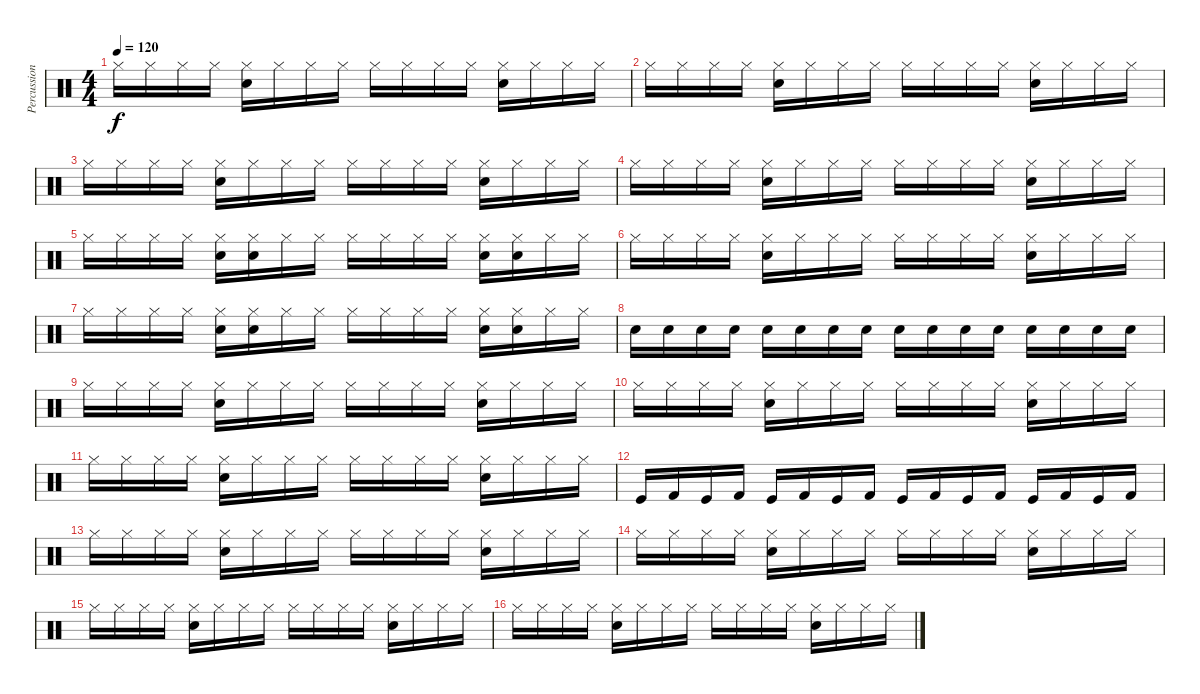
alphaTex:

\track ("Percussion" "Percussion") {instrument percussion}
\staff {score}
\articulation defaults
\ts (4 4)
\tempo 120
\clef neutral
\ks c "Hi-Hat (closed)".16{dy f} "Hi-Hat (closed)".16 "Hi-Hat (closed)".16 "Hi-Hat (closed)".16
("Hi-Hat (closed)" "Electric Snare (hit)").16 "Hi-Hat (closed)".16 "Hi-Hat (closed)".16 "Hi-Hat (closed)".16 "Hi-Hat (closed)".16 "Hi-Hat (closed)".16 "Hi-Hat (closed)".16 "Hi-Hat (closed)".16 ("Hi-Hat (closed)" "Electric Snare (hit)").16 "Hi-Hat (closed)".16 "Hi-Hat (closed)".16 "Hi-Hat (closed)".16 |
"Hi-Hat (closed)".16 "Hi-Hat (closed)".16 "Hi-Hat (closed)".16 "Hi-Hat (closed)".16 ("Hi-Hat (closed)" "Electric Snare (hit)").16 "Hi-Hat (closed)".16 "Hi-Hat (closed)".16 "Hi-Hat (closed)".16 "Hi-Hat (closed)".16 "Hi-Hat (closed)".16 "Hi-Hat (closed)".16 "Hi-Hat (closed)".16 ("Hi-Hat (closed)" "Electric Snare (hit)").16 "Hi-Hat (closed)".16 "Hi-Hat (closed)".16 "Hi-Hat (closed)".16 |
"Hi-Hat (closed)".16 "Hi-Hat (closed)".16 "Hi-Hat (closed)".16 "Hi-Hat (closed)".16 ("Hi-Hat (closed)" "Electric Snare (hit)").16 "Hi-Hat (closed)".16 "Hi-Hat (closed)".16 "Hi-Hat (closed)".16 "Hi-Hat (closed)".16 "Hi-Hat (closed)".16 "Hi-Hat (closed)".16 "Hi-Hat (closed)".16 ("Hi-Hat (closed)" "Electric Snare (hit)").16 "Hi-Hat (closed)".16 "Hi-Hat (closed)".16 "Hi-Hat (closed)".16 |
"Hi-Hat (closed)".16 "Hi-Hat (closed)".16 "Hi-Hat (closed)".16 "Hi-Hat (closed)".16 ("Hi-Hat (closed)" "Electric Snare (hit)").16 "Hi-Hat (closed)".16 "Hi-Hat (closed)".16 "Hi-Hat (closed)".16 "Hi-Hat (closed)".16 "Hi-Hat (closed)".16 "Hi-Hat (closed)".16 "Hi-Hat (closed)".16 ("Hi-Hat (closed)" "Electric Snare (hit)").16 "Hi-Hat (closed)".16 "Hi-Hat (closed)".16 "Hi-Hat (closed)".16 |
"Hi-Hat (closed)".16 "Hi-Hat (closed)".16 "Hi-Hat (closed)".16 "Hi-Hat (closed)".16 ("Hi-Hat (closed)" "Electric Snare (hit)").16 ("Hi-Hat (closed)" "Electric Snare (hit)").16 "Hi-Hat (closed)".16 "Hi-Hat (closed)".16 "Hi-Hat (closed)".16 "Hi-Hat (closed)".16 "Hi-Hat (closed)".16 "Hi-Hat (closed)".16 ("Hi-Hat (closed)" "Electric Snare (hit)").16 ("Hi-Hat (closed)" "Electric Snare (hit)").16 "Hi-Hat (closed)".16 "Hi-Hat (closed)".16 |
"Hi-Hat (closed)".16 "Hi-Hat (closed)".16 "Hi-Hat (closed)".16 "Hi-Hat (closed)".16 ("Hi-Hat (closed)" "Electric Snare (hit)").16 "Hi-Hat (closed)".16 "Hi-Hat (closed)".16 "Hi-Hat (closed)".16 "Hi-Hat (closed)".16 "Hi-Hat (closed)".16 "Hi-Hat (closed)".16 "Hi-Hat (closed)".16 ("Hi-Hat (closed)" "Electric Snare (hit)").16 "Hi-Hat (closed)".16 "Hi-Hat (closed)".16 "Hi-Hat (closed)".16 |
"Hi-Hat (closed)".16 "Hi-Hat (closed)".16 "Hi-Hat (closed)".16 "Hi-Hat (closed)".16 ("Hi-Hat (closed)" "Electric Snare (hit)").16 ("Hi-Hat (closed)" "Electric Snare (hit)").16 "Hi-Hat (closed)".16 "Hi-Hat (closed)".16 "Hi-Hat (closed)".16 "Hi-Hat (closed)".16 "Hi-Hat (closed)".16 "Hi-Hat (closed)".16 ("Hi-Hat (closed)" "Electric Snare (hit)").16 ("Hi-Hat (closed)" "Electric Snare (hit)").16 "Hi-Hat (closed)".16 "Hi-Hat (closed)".16 |
"Electric Snare (hit)".16 "Electric Snare (hit)".16 "Electric Snare (hit)".16 "Electric Snare (hit)".16 "Electric Snare (hit)".16 "Electric Snare (hit)".16 "Electric Snare (hit)".16 "Electric Snare (hit)".16 "Electric Snare (hit)".16 "Electric Snare (hit)".16 "Electric Snare (hit)".16 "Electric Snare (hit)".16 "Electric Snare (hit)".16 "Electric Snare (hit)".16 "Electric Snare (hit)".16 "Electric Snare (hit)".16 |
"Hi-Hat (closed)".16 "Hi-Hat (closed)".16 "Hi-Hat (closed)".16 "Hi-Hat (closed)".16 ("Hi-Hat (closed)" "Electric Snare (hit)").16 "Hi-Hat (closed)".16 "Hi-Hat (closed)".16 "Hi-Hat (closed)".16 "Hi-Hat (closed)".16 "Hi-Hat (closed)".16 "Hi-Hat (closed)".16 "Hi-Hat (closed)".16 ("Hi-Hat (closed)" "Electric Snare (hit)").16 "Hi-Hat (closed)".16 "Hi-Hat (closed)".16 "Hi-Hat (closed)".16 |
"Hi-Hat (closed)".16 "Hi-Hat (closed)".16 "Hi-Hat (closed)".16 "Hi-Hat (closed)".16 ("Hi-Hat (closed)" "Electric Snare (hit)").16 "Hi-Hat (closed)".16 "Hi-Hat (closed)".16 "Hi-Hat (closed)".16 "Hi-Hat (closed)".16 "Hi-Hat (closed)".16 "Hi-Hat (closed)".16 "Hi-Hat (closed)".16 ("Hi-Hat (closed)" "Electric Snare (hit)").16 "Hi-Hat (closed)".16 "Hi-Hat (closed)".16 "Hi-Hat (closed)".16 |
"Hi-Hat (closed)".16 "Hi-Hat (closed)".16 "Hi-Hat (closed)".16 "Hi-Hat (closed)".16 ("Hi-Hat (closed)" "Electric Snare (hit)").16 "Hi-Hat (closed)".16 "Hi-Hat (closed)".16 "Hi-Hat (closed)".16 "Hi-Hat (closed)".16 "Hi-Hat (closed)".16 "Hi-Hat (closed)".16 "Hi-Hat (closed)".16 ("Hi-Hat (closed)" "Electric Snare (hit)").16 "Hi-Hat (closed)".16 "Hi-Hat (closed)".16 "Hi-Hat (closed)".16 |
"Kick (hit)".16 "Kick (hit) 2".16 "Kick (hit)".16 "Kick (hit) 2".16 "Kick (hit)".16 "Kick (hit) 2".16 "Kick (hit)".16 "Kick (hit) 2".16 "Kick (hit)".16 "Kick (hit) 2".16 "Kick (hit)".16 "Kick (hit) 2".16 "Kick (hit)".16 "Kick (hit) 2".16 "Kick (hit)".16 "Kick (hit) 2".16 |
"Hi-Hat (closed)".16 "Hi-Hat (closed)".16 "Hi-Hat (closed)".16 "Hi-Hat (closed)".16 ("Hi-Hat (closed)" "Electric Snare (hit)").16 "Hi-Hat (closed)".16 "Hi-Hat (closed)".16 "Hi-Hat (closed)".16 "Hi-Hat (closed)".16 "Hi-Hat (closed)".16 "Hi-Hat (closed)".16 "Hi-Hat (closed)".16 ("Hi-Hat (closed)" "Electric Snare (hit)").16 "Hi-Hat (closed)".16 "Hi-Hat (closed)".16 "Hi-Hat (closed)".16 |
"Hi-Hat (closed)".16 "Hi-Hat (closed)".16 "Hi-Hat (closed)".16 "Hi-Hat (closed)".16 ("Hi-Hat (closed)" "Electric Snare (hit)").16 "Hi-Hat (closed)".16 "Hi-Hat (closed)".16 "Hi-Hat (closed)".16 "Hi-Hat (closed)".16 "Hi-Hat (closed)".16 "Hi-Hat (closed)".16 "Hi-Hat (closed)".16 ("Hi-Hat (closed)" "Electric Snare (hit)").16 "Hi-Hat (closed)".16 "Hi-Hat (closed)".16 "Hi-Hat (closed)".16 |
"Hi-Hat (closed)".16 "Hi-Hat (closed)".16 "Hi-Hat (closed)".16 "Hi-Hat (closed)".16 ("Hi-Hat (closed)" "Electric Snare (hit)").16 "Hi-Hat (closed)".16 "Hi-Hat (closed)".16 "Hi-Hat (closed)".16 "Hi-Hat (closed)".16 "Hi-Hat (closed)".16 "Hi-Hat (closed)".16 "Hi-Hat (closed)".16 ("Hi-Hat (closed)" "Electric Snare (hit)").16 "Hi-Hat (closed)".16 "Hi-Hat (closed)".16 "Hi-Hat (closed)".16 |
"Hi-Hat (closed)".16 "Hi-Hat (closed)".16 "Hi-Hat (closed)".16 "Hi-Hat (closed)".16 ("Hi-Hat (closed)" "Electric Snare (hit)").16 "Hi-Hat (closed)".16 "Hi-Hat (closed)".16 "Hi-Hat (closed)".16 "Hi-Hat (closed)".16 "Hi-Hat (closed)".16 "Hi-Hat (closed)".16 "Hi-Hat (closed)".16 ("Hi-Hat (closed)" "Electric Snare (hit)").16 "Hi-Hat (closed)".16 "Hi-Hat (closed)".16 "Hi-Hat (closed)".16
